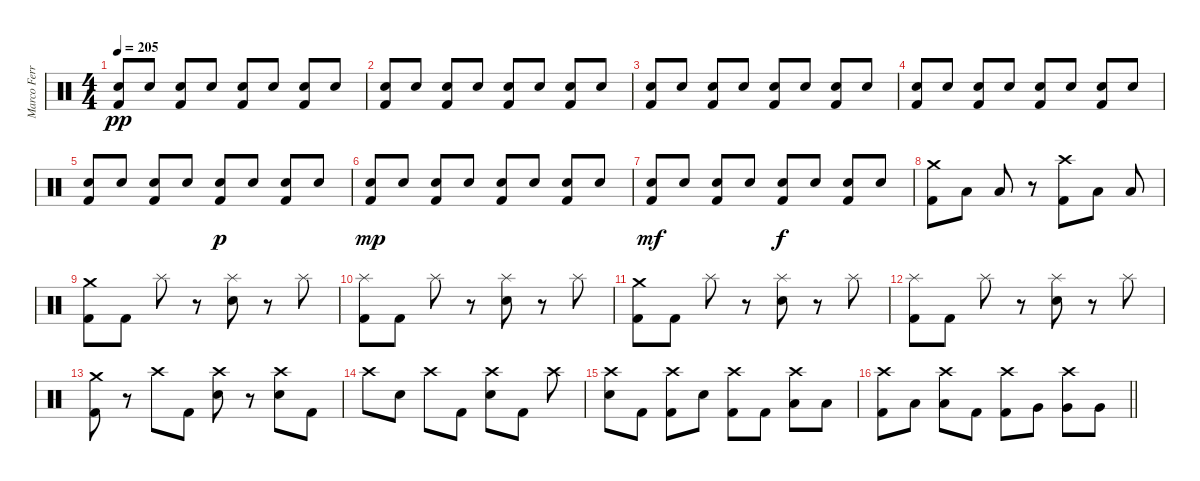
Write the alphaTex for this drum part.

\track ("Marco Ferro" "Marco Ferr") {instrument percussion}
\staff {score}
\articulation defaults
\ts (4 4)
\tempo 205
\clef neutral
\ks c
("Electric Snare (hit)" "Kick (hit) 2").8{dy pp} "Electric Snare (hit)".8 ("Electric Snare (hit)" "Kick (hit) 2").8 "Electric Snare (hit)".8 ("Electric Snare (hit)" "Kick (hit) 2").8 "Electric Snare (hit)".8 ("Electric Snare (hit)" "Kick (hit) 2").8 "Electric Snare (hit)".8 |
("Electric Snare (hit)" "Kick (hit) 2").8 "Electric Snare (hit)".8 ("Electric Snare (hit)" "Kick (hit) 2").8 "Electric Snare (hit)".8 ("Electric Snare (hit)" "Kick (hit) 2").8 "Electric Snare (hit)".8 ("Electric Snare (hit)" "Kick (hit) 2").8 "Electric Snare (hit)".8 |
("Electric Snare (hit)" "Kick (hit) 2").8 "Electric Snare (hit)".8 ("Electric Snare (hit)" "Kick (hit) 2").8 "Electric Snare (hit)".8 ("Electric Snare (hit)" "Kick (hit) 2").8 "Electric Snare (hit)".8 ("Electric Snare (hit)" "Kick (hit) 2").8 "Electric Snare (hit)".8 |
("Electric Snare (hit)" "Kick (hit) 2").8 "Electric Snare (hit)".8 ("Electric Snare (hit)" "Kick (hit) 2").8 "Electric Snare (hit)".8 ("Electric Snare (hit)" "Kick (hit) 2").8 "Electric Snare (hit)".8 ("Electric Snare (hit)" "Kick (hit) 2").8 "Electric Snare (hit)".8 |
("Electric Snare (hit)" "Kick (hit) 2").8 "Electric Snare (hit)".8 ("Electric Snare (hit)" "Kick (hit) 2").8 "Electric Snare (hit)".8 ("Electric Snare (hit)" "Kick (hit) 2").8{dy p} "Electric Snare (hit)".8 ("Electric Snare (hit)" "Kick (hit) 2").8 "Electric Snare (hit)".8 |
("Electric Snare (hit)" "Kick (hit) 2").8{dy mp} "Electric Snare (hit)".8 ("Electric Snare (hit)" "Kick (hit) 2").8 "Electric Snare (hit)".8 ("Electric Snare (hit)" "Kick (hit) 2").8 "Electric Snare (hit)".8 ("Electric Snare (hit)" "Kick (hit) 2").8 "Electric Snare (hit)".8 |
("Electric Snare (hit)" "Kick (hit) 2").8{dy mf} "Electric Snare (hit)".8 ("Electric Snare (hit)" "Kick (hit) 2").8 "Electric Snare (hit)".8 ("Electric Snare (hit)" "Kick (hit) 2").8{dy f} "Electric Snare (hit)".8 ("Electric Snare (hit)" "Kick (hit) 2").8 "Electric Snare (hit)".8 |
("Crash medium (hit)" "Kick (hit) 2").8 "Low Tom (hit)".8 "Low Tom (hit)".8 r.8 ("Crash high (hit)" "Kick (hit) 2").8 "Low Tom (hit)".8 "Low Tom (hit)".8 |
("Crash medium (hit)" "Kick (hit) 2").8 "Kick (hit) 2".8 "Splash (hit)".8 r.8 ("Splash (hit)" "Electric Snare (hit)").8 r.8 "Splash (hit)".8 |
("Splash (hit)" "Kick (hit) 2").8 "Kick (hit) 2".8 "Splash (hit)".8 r.8 ("Splash (hit)" "Electric Snare (hit)").8 r.8 "Splash (hit)".8 |
("Crash medium (hit)" "Kick (hit) 2").8 "Kick (hit) 2".8 "Splash (hit)".8 r.8 ("Splash (hit)" "Electric Snare (hit)").8 r.8 "Splash (hit)".8 |
("Splash (hit)" "Kick (hit) 2").8 "Kick (hit) 2".8 "Splash (hit)".8 r.8 ("Splash (hit)" "Electric Snare (hit)").8 r.8 "Splash (hit)".8 |
("Crash medium (hit)" "Kick (hit) 2").8 r.8 "Crash high (hit)".8 "Kick (hit) 2".8 ("Crash high (hit)" "Electric Snare (hit)").8 r.8 ("Crash high (hit)" "Electric Snare (hit)").8 "Kick (hit) 2".8 |
"Crash high (hit)".8 "Electric Snare (hit)".8 "Crash high (hit)".8 "Kick (hit) 2".8 ("Crash high (hit)" "Electric Snare (hit)").8 "Kick (hit) 2".8 "Crash high (hit)".8 |
("Crash high (hit)" "Electric Snare (hit)").8 "Kick (hit) 2".8 ("Crash high (hit)" "Kick (hit) 2").8 "Electric Snare (hit)".8 ("Crash high (hit)" "Kick (hit) 2").8 "Kick (hit) 2".8 ("Crash high (hit)" "Low Tom (hit)").8 "Low Tom (hit)".8 |
\barLineRight lightlight
("Crash high (hit)" "Kick (hit) 2").8 "Low Tom (hit)".8 ("Crash high (hit)" "Low Tom (hit)").8 "Kick (hit) 2".8 ("Crash high (hit)" "Kick (hit) 2").8 "Very Low Tom (hit)".8 ("Crash high (hit)" "Very Low Tom (hit)").8 "Very Low Tom (hit)".8
